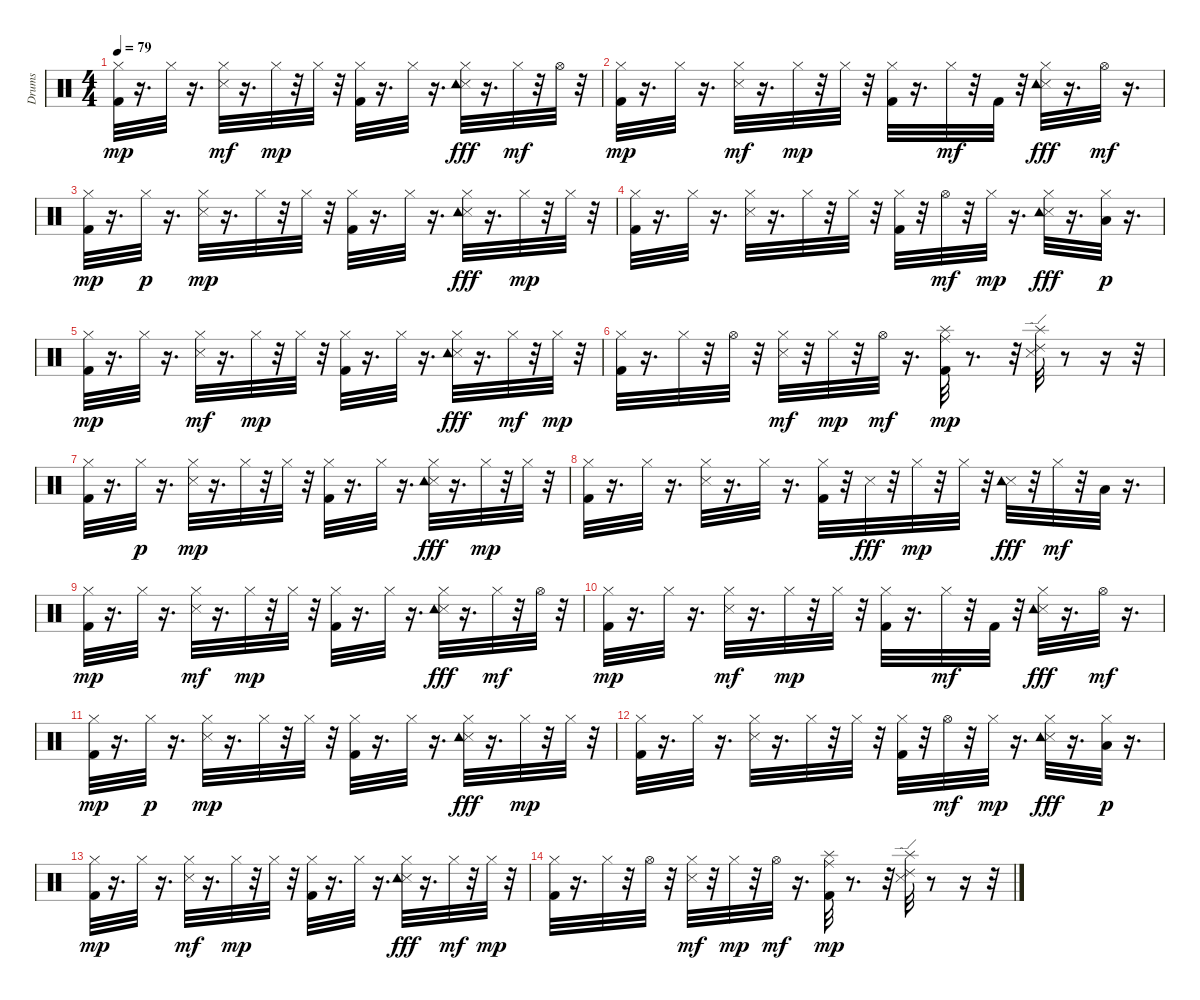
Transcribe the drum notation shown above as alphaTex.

\track ("Drums" "Drums") {instrument percussion}
\staff {score}
\articulation defaults
\ts (4 4)
\tempo 79
\clef neutral
\ks c
("Kick (hit) 2" "Hi-Hat (closed)").32{dy mp} r.16{d} "Hi-Hat (closed)".32 r.16{d} ("Snare (side stick) 3" "Hi-Hat (closed)").32{dy mf} r.16{d} "Hi-Hat (closed)".32{dy mp} r.32 "Hi-Hat (closed)".32 r.32 ("Kick (hit) 2" "Hi-Hat (closed)").32 r.16{d} "Hi-Hat (closed)".32 r.16{d} ("Snare (side stick) 3" "Hi-Hat (closed)" "Tambourine (hit)").32{dy fff} r.16{d} "Hi-Hat (closed)".32{dy mf} r.32 "Hi-Hat (open)".32 r.32 |
("Kick (hit) 2" "Hi-Hat (closed)").32{dy mp} r.16{d} "Hi-Hat (closed)".32 r.16{d} ("Snare (side stick) 3" "Hi-Hat (closed)").32{dy mf} r.16{d} "Hi-Hat (closed)".32{dy mp} r.32 "Hi-Hat (closed)".32 r.32 ("Kick (hit) 2" "Hi-Hat (closed)").32 r.16{d} "Hi-Hat (closed)".32{dy mf} r.32 "Kick (hit) 2".32 r.32 ("Snare (side stick) 3" "Hi-Hat (closed)" "Tambourine (hit)").32{dy fff} r.16{d} "Hi-Hat (open)".32{dy mf} r.16{d} |
("Kick (hit) 2" "Hi-Hat (closed)").32{dy mp} r.16{d} "Hi-Hat (closed)".32{dy p} r.16{d} ("Snare (side stick) 3" "Hi-Hat (closed)").32{dy mp} r.16{d} "Hi-Hat (closed)".32 r.32 "Hi-Hat (closed)".32 r.32 ("Kick (hit) 2" "Hi-Hat (closed)").32 r.16{d} "Hi-Hat (closed)".32 r.16{d} ("Snare (side stick) 3" "Hi-Hat (closed)" "Tambourine (hit)").32{dy fff} r.16{d} "Hi-Hat (closed)".32{dy mp} r.32 "Hi-Hat (closed)".32 r.32 |
("Kick (hit) 2" "Hi-Hat (closed)").32 r.16{d} "Hi-Hat (closed)".32 r.16{d} ("Snare (side stick) 3" "Hi-Hat (closed)").32 r.16{d} "Hi-Hat (closed)".32 r.32 "Hi-Hat (closed)".32 r.32 ("Kick (hit) 2" "Hi-Hat (closed)").32 r.32 "Hi-Hat (open)".32{dy mf} r.32 "Hi-Hat (closed)".32{dy mp} r.16{d} ("Snare (side stick) 3" "Hi-Hat (closed)" "Tambourine (hit)").32{dy fff} r.16{d} ("Low Floor Tom (hit)" "Hi-Hat (closed)").32{dy p} r.16{d} |
("Kick (hit) 2" "Hi-Hat (closed)").32{dy mp} r.16{d} "Hi-Hat (closed)".32 r.16{d} ("Snare (side stick) 3" "Hi-Hat (closed)").32{dy mf} r.16{d} "Hi-Hat (closed)".32{dy mp} r.32 "Hi-Hat (closed)".32 r.32 ("Kick (hit) 2" "Hi-Hat (closed)").32 r.16{d} "Hi-Hat (closed)".32 r.16{d} ("Snare (side stick) 3" "Hi-Hat (closed)" "Tambourine (hit)").32{dy fff} r.16{d} "Hi-Hat (closed)".32{dy mf} r.32 "Hi-Hat (closed)".32{dy mp} r.32 |
("Kick (hit) 2" "Hi-Hat (closed)").32 r.16{d} "Hi-Hat (closed)".32 r.32 "Hi-Hat (open)".32 r.32 ("Snare (side stick) 3" "Hi-Hat (closed)").32{dy mf} r.32 "Hi-Hat (closed)".32{dy mp} r.32 "Hi-Hat (open)".32{dy mf} r.16{d} ("Kick (hit) 2" "Ride (middle)" "Splash (hit)").32{dy mp} r.8{d} r.32 ("Snare (side stick) 3" "Splash (hit)" "Ride (edge) 2").32 r.8 r.16 r.32 |
("Kick (hit) 2" "Hi-Hat (closed)").32 r.16{d} "Hi-Hat (closed)".32{dy p} r.16{d} ("Snare (side stick) 3" "Hi-Hat (closed)").32{dy mp} r.16{d} "Hi-Hat (closed)".32 r.32 "Hi-Hat (closed)".32 r.32 ("Kick (hit) 2" "Hi-Hat (closed)").32 r.16{d} "Hi-Hat (closed)".32 r.16{d} ("Snare (side stick) 3" "Hi-Hat (closed)" "Tambourine (hit)").32{dy fff} r.16{d} "Hi-Hat (closed)".32{dy mp} r.32 "Hi-Hat (closed)".32 r.32 |
("Kick (hit) 2" "Hi-Hat (closed)").32 r.16{d} "Hi-Hat (closed)".32 r.16{d} ("Snare (side stick) 3" "Hi-Hat (closed)").32 r.16{d} "Hi-Hat (closed)".32 r.16{d} ("Kick (hit) 2" "Hi-Hat (closed)").32 r.32 "Snare (side stick) 3".32{dy fff} r.32 "Hi-Hat (closed)".32{dy mp} r.32 "Hi-Hat (closed)".32 r.32 ("Snare (side stick) 3" "Tambourine (hit)").32{dy fff} r.32 "Hi-Hat (closed)".32{dy mf} r.32 "Low Floor Tom (hit)".32 r.16{d} |
("Kick (hit) 2" "Hi-Hat (closed)").32{dy mp} r.16{d} "Hi-Hat (closed)".32 r.16{d} ("Snare (side stick) 3" "Hi-Hat (closed)").32{dy mf} r.16{d} "Hi-Hat (closed)".32{dy mp} r.32 "Hi-Hat (closed)".32 r.32 ("Kick (hit) 2" "Hi-Hat (closed)").32 r.16{d} "Hi-Hat (closed)".32 r.16{d} ("Snare (side stick) 3" "Hi-Hat (closed)" "Tambourine (hit)").32{dy fff} r.16{d} "Hi-Hat (closed)".32{dy mf} r.32 "Hi-Hat (open)".32 r.32 |
("Kick (hit) 2" "Hi-Hat (closed)").32{dy mp} r.16{d} "Hi-Hat (closed)".32 r.16{d} ("Snare (side stick) 3" "Hi-Hat (closed)").32{dy mf} r.16{d} "Hi-Hat (closed)".32{dy mp} r.32 "Hi-Hat (closed)".32 r.32 ("Kick (hit) 2" "Hi-Hat (closed)").32 r.16{d} "Hi-Hat (closed)".32{dy mf} r.32 "Kick (hit) 2".32 r.32 ("Snare (side stick) 3" "Hi-Hat (closed)" "Tambourine (hit)").32{dy fff} r.16{d} "Hi-Hat (open)".32{dy mf} r.16{d} |
("Kick (hit) 2" "Hi-Hat (closed)").32{dy mp} r.16{d} "Hi-Hat (closed)".32{dy p} r.16{d} ("Snare (side stick) 3" "Hi-Hat (closed)").32{dy mp} r.16{d} "Hi-Hat (closed)".32 r.32 "Hi-Hat (closed)".32 r.32 ("Kick (hit) 2" "Hi-Hat (closed)").32 r.16{d} "Hi-Hat (closed)".32 r.16{d} ("Snare (side stick) 3" "Hi-Hat (closed)" "Tambourine (hit)").32{dy fff} r.16{d} "Hi-Hat (closed)".32{dy mp} r.32 "Hi-Hat (closed)".32 r.32 |
("Kick (hit) 2" "Hi-Hat (closed)").32 r.16{d} "Hi-Hat (closed)".32 r.16{d} ("Snare (side stick) 3" "Hi-Hat (closed)").32 r.16{d} "Hi-Hat (closed)".32 r.32 "Hi-Hat (closed)".32 r.32 ("Kick (hit) 2" "Hi-Hat (closed)").32 r.32 "Hi-Hat (open)".32{dy mf} r.32 "Hi-Hat (closed)".32{dy mp} r.16{d} ("Snare (side stick) 3" "Hi-Hat (closed)" "Tambourine (hit)").32{dy fff} r.16{d} ("Low Floor Tom (hit)" "Hi-Hat (closed)").32{dy p} r.16{d} |
("Kick (hit) 2" "Hi-Hat (closed)").32{dy mp} r.16{d} "Hi-Hat (closed)".32 r.16{d} ("Snare (side stick) 3" "Hi-Hat (closed)").32{dy mf} r.16{d} "Hi-Hat (closed)".32{dy mp} r.32 "Hi-Hat (closed)".32 r.32 ("Kick (hit) 2" "Hi-Hat (closed)").32 r.16{d} "Hi-Hat (closed)".32 r.16{d} ("Snare (side stick) 3" "Hi-Hat (closed)" "Tambourine (hit)").32{dy fff} r.16{d} "Hi-Hat (closed)".32{dy mf} r.32 "Hi-Hat (closed)".32{dy mp} r.32 |
("Kick (hit) 2" "Hi-Hat (closed)").32 r.16{d} "Hi-Hat (closed)".32 r.32 "Hi-Hat (open)".32 r.32 ("Snare (side stick) 3" "Hi-Hat (closed)").32{dy mf} r.32 "Hi-Hat (closed)".32{dy mp} r.32 "Hi-Hat (open)".32{dy mf} r.16{d} ("Kick (hit) 2" "Ride (middle)" "Splash (hit)").32{dy mp} r.8{d} r.32 ("Snare (side stick) 3" "Splash (hit)" "Ride (edge) 2").32 r.8 r.16 r.32
